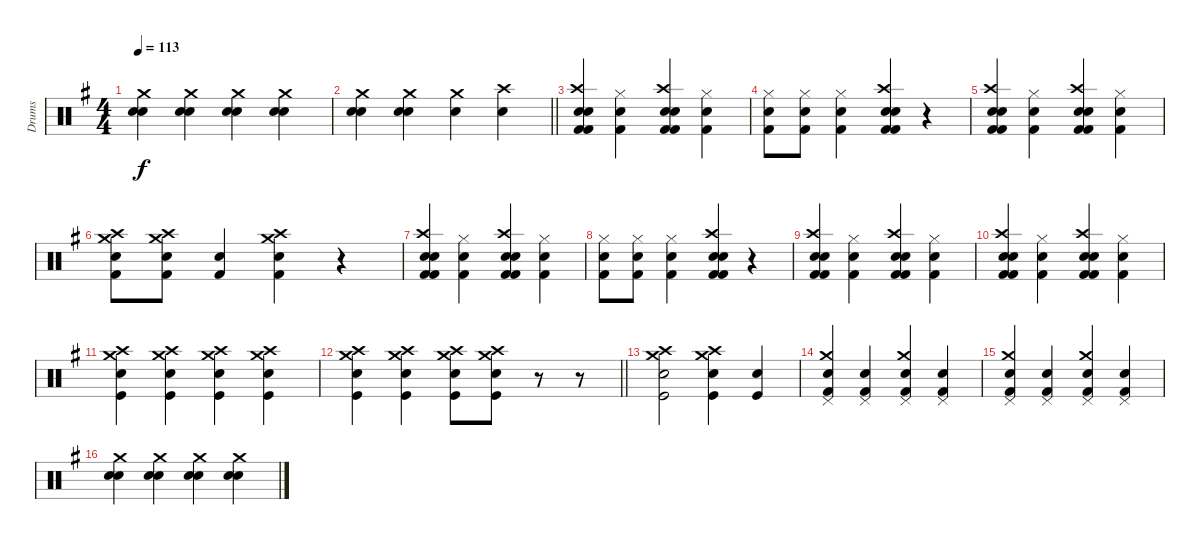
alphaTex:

\track ("Drums" "Drums") {instrument percussion}
\staff {score}
\articulation defaults
\ts (4 4)
\tempo 113
\clef neutral
\ks g
("Snare (hit) 2" "Snare (hit) 2" "Crash medium (hit)").4{dy f} ("Crash medium (hit)" "Snare (hit) 2" "Snare (hit) 2").4 ("Crash medium (hit)" "Snare (hit) 2" "Snare (hit) 2").4 ("Snare (hit) 2" "Snare (hit) 2" "Crash medium (hit)").4 |
\barLineRight lightlight
("Snare (hit) 2" "Snare (hit) 2" "Crash medium (hit)").4 ("Crash medium (hit)" "Snare (hit) 2" "Snare (hit) 2").4 ("Snare (hit) 2" "Crash medium (hit)").4 ("Crash high (hit)" "Snare (hit) 2").4 |
("Snare (hit) 2" "Kick (hit) 2" "Kick (hit) 2" "Snare (hit) 2" "Crash high (hit)").4 ("Snare (hit) 2" "Kick (hit) 2" "Hi-Hat (closed)").4 ("Snare (hit) 2" "Kick (hit) 2" "Kick (hit) 2" "Snare (hit) 2" "Crash high (hit)").4 ("Snare (hit) 2" "Kick (hit) 2" "Hi-Hat (closed)").4 |
("Snare (hit) 2" "Kick (hit) 2" "Hi-Hat (closed)").8 ("Snare (hit) 2" "Kick (hit) 2" "Hi-Hat (closed)").8 ("Snare (hit) 2" "Kick (hit) 2" "Hi-Hat (closed)").4 ("Snare (hit) 2" "Kick (hit) 2" "Kick (hit) 2" "Snare (hit) 2" "Crash high (hit)").4 r.4 |
("Snare (hit) 2" "Kick (hit) 2" "Kick (hit) 2" "Snare (hit) 2" "Crash high (hit)").4 ("Snare (hit) 2" "Kick (hit) 2" "Hi-Hat (closed)").4 ("Snare (hit) 2" "Kick (hit) 2" "Kick (hit) 2" "Snare (hit) 2" "Crash high (hit)").4 ("Snare (hit) 2" "Kick (hit) 2" "Hi-Hat (closed)").4 |
("Electric Snare (hit)" "Kick (hit) 2" "Crash high (hit)" "Crash medium (hit)").8 ("Electric Snare (hit)" "Kick (hit) 2" "Crash high (hit)" "Crash medium (hit)").8 ("Electric Snare (hit)" "Kick (hit) 2").4 ("Electric Snare (hit)" "Kick (hit) 2" "Crash high (hit)" "Crash medium (hit)").4 r.4 |
("Snare (hit) 2" "Kick (hit) 2" "Kick (hit) 2" "Snare (hit) 2" "Crash high (hit)").4 ("Snare (hit) 2" "Kick (hit) 2" "Hi-Hat (closed)").4 ("Snare (hit) 2" "Kick (hit) 2" "Kick (hit) 2" "Snare (hit) 2" "Crash high (hit)").4 ("Snare (hit) 2" "Kick (hit) 2" "Hi-Hat (closed)").4 |
("Snare (hit) 2" "Kick (hit) 2" "Hi-Hat (closed)").8 ("Snare (hit) 2" "Kick (hit) 2" "Hi-Hat (closed)").8 ("Snare (hit) 2" "Kick (hit) 2" "Hi-Hat (closed)").4 ("Snare (hit) 2" "Kick (hit) 2" "Kick (hit) 2" "Snare (hit) 2" "Crash high (hit)").4 r.4 |
("Snare (hit) 2" "Kick (hit) 2" "Kick (hit) 2" "Snare (hit) 2" "Crash high (hit)").4 ("Snare (hit) 2" "Kick (hit) 2" "Hi-Hat (closed)").4 ("Snare (hit) 2" "Kick (hit) 2" "Kick (hit) 2" "Snare (hit) 2" "Crash high (hit)").4 ("Snare (hit) 2" "Kick (hit) 2" "Hi-Hat (closed)").4 |
("Snare (hit) 2" "Kick (hit) 2" "Kick (hit) 2" "Snare (hit) 2" "Crash high (hit)").4 ("Snare (hit) 2" "Kick (hit) 2" "Hi-Hat (closed)").4 ("Snare (hit) 2" "Kick (hit) 2" "Kick (hit) 2" "Snare (hit) 2" "Crash high (hit)").4 ("Snare (hit) 2" "Kick (hit) 2" "Hi-Hat (closed)").4 |
("Kick (hit)" "Electric Snare (hit)" "Crash medium (hit)" "Crash high (hit)").4 ("Kick (hit)" "Electric Snare (hit)" "Crash medium (hit)" "Crash high (hit)").4 ("Kick (hit)" "Electric Snare (hit)" "Crash medium (hit)" "Crash high (hit)").4 ("Kick (hit)" "Electric Snare (hit)" "Crash medium (hit)" "Crash high (hit)").4 |
\barLineRight lightlight
("Kick (hit)" "Electric Snare (hit)" "Crash medium (hit)" "Crash high (hit)").4 ("Kick (hit)" "Electric Snare (hit)" "Crash medium (hit)" "Crash high (hit)").4 ("Kick (hit)" "Electric Snare (hit)" "Crash medium (hit)" "Crash high (hit)").8 ("Kick (hit)" "Electric Snare (hit)" "Crash medium (hit)" "Crash high (hit)").8 r.8 r.8 |
("Kick (hit)" "Electric Snare (hit)" "Crash high (hit)" "Crash medium (hit)").2 ("Kick (hit)" "Electric Snare (hit)" "Crash high (hit)" "Crash medium (hit)").4 ("Kick (hit)" "Electric Snare (hit)").4 |
("Kick (hit) 2" "Snare (hit) 2" "Crash medium (hit)" "Pedal Hi-Hat (hit)").4 ("Snare (hit) 2" "Kick (hit) 2" "Pedal Hi-Hat (hit)").4 ("Snare (hit) 2" "Kick (hit) 2" "Crash medium (hit)" "Pedal Hi-Hat (hit)").4 ("Snare (hit) 2" "Kick (hit) 2" "Pedal Hi-Hat (hit)").4 |
("Kick (hit) 2" "Snare (hit) 2" "Crash medium (hit)" "Pedal Hi-Hat (hit)").4 ("Snare (hit) 2" "Kick (hit) 2" "Pedal Hi-Hat (hit)").4 ("Snare (hit) 2" "Kick (hit) 2" "Crash medium (hit)" "Pedal Hi-Hat (hit)").4 ("Snare (hit) 2" "Kick (hit) 2" "Pedal Hi-Hat (hit)").4 |
("Snare (hit) 2" "Snare (hit) 2" "Crash medium (hit)").4 ("Crash medium (hit)" "Snare (hit) 2" "Snare (hit) 2").4 ("Crash medium (hit)" "Snare (hit) 2" "Snare (hit) 2").4 ("Snare (hit) 2" "Snare (hit) 2" "Crash medium (hit)").4
